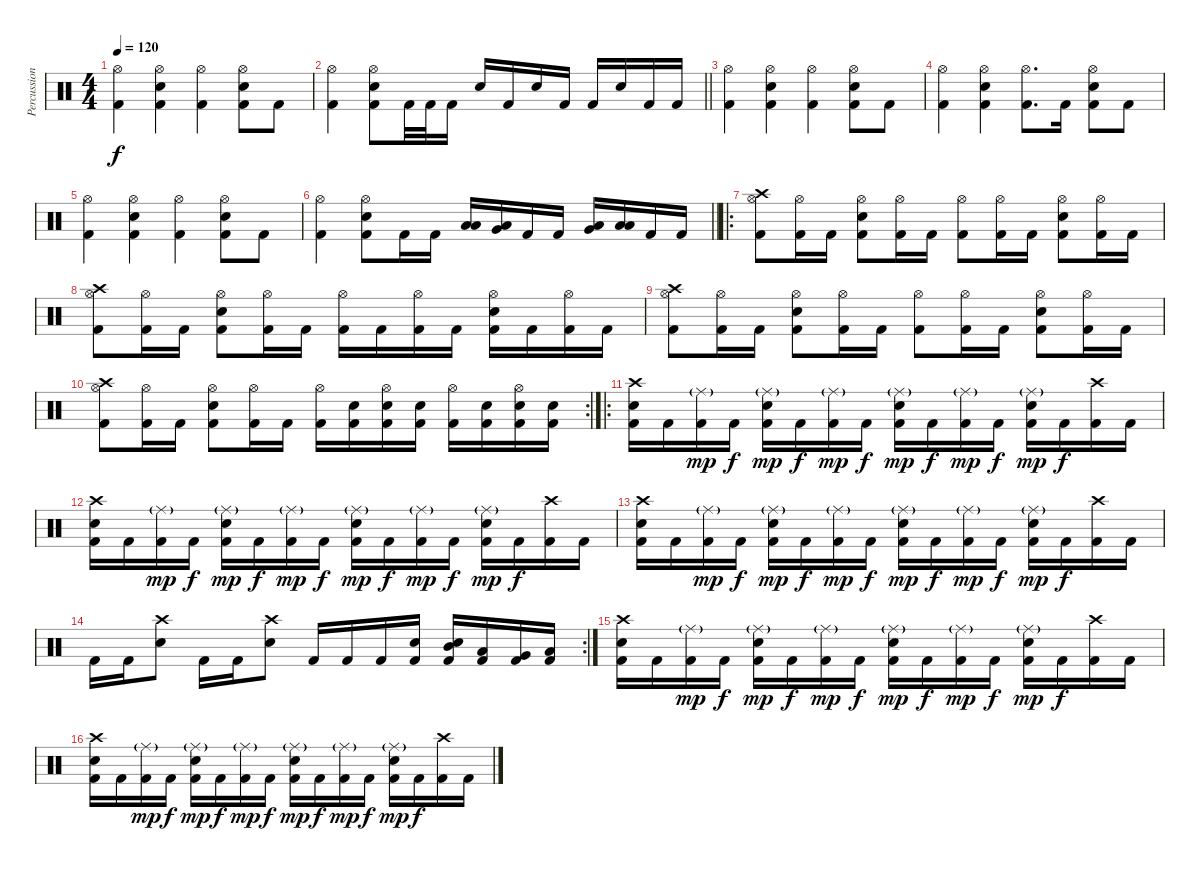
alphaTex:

\track ("Percussion" "Percussion") {instrument percussion}
\staff {score}
\articulation defaults
\ts (4 4)
\tempo 120
\clef neutral
\ks c
("Hi-Hat (open)" "Kick (hit) 2").4{dy f} ("Hi-Hat (open)" "Snare (hit) 2" "Kick (hit) 2").4 ("Hi-Hat (open)" "Kick (hit) 2").4 ("Hi-Hat (open)" "Snare (hit) 2" "Kick (hit) 2").8 "Kick (hit) 2".8 |
\barLineRight lightlight
("Hi-Hat (open)" "Kick (hit) 2").4 ("Hi-Hat (open)" "Snare (hit) 2" "Kick (hit) 2").8 "Kick (hit) 2".32 "Kick (hit) 2".32 "Kick (hit) 2".16 "Snare (hit) 2".16 "Kick (hit) 2".16 "Snare (hit) 2".16 "Kick (hit) 2".16 "Kick (hit) 2".16 "Snare (hit) 2".16 "Kick (hit) 2".16 "Kick (hit) 2".16 |
("Hi-Hat (open)" "Kick (hit) 2").4 ("Hi-Hat (open)" "Snare (hit) 2" "Kick (hit) 2").4 ("Hi-Hat (open)" "Kick (hit) 2").4 ("Hi-Hat (open)" "Snare (hit) 2" "Kick (hit) 2").8 "Kick (hit) 2".8 |
("Hi-Hat (open)" "Kick (hit) 2").4 ("Hi-Hat (open)" "Snare (hit) 2" "Kick (hit) 2").4 ("Hi-Hat (open)" "Kick (hit) 2").8{d} "Kick (hit) 2".16 ("Hi-Hat (open)" "Snare (hit) 2" "Kick (hit) 2").8 "Kick (hit) 2".8 |
("Hi-Hat (open)" "Kick (hit) 2").4 ("Hi-Hat (open)" "Snare (hit) 2" "Kick (hit) 2").4 ("Hi-Hat (open)" "Kick (hit) 2").4 ("Hi-Hat (open)" "Snare (hit) 2" "Kick (hit) 2").8 "Kick (hit) 2".8 |
\barLineRight lightlight
("Hi-Hat (open)" "Kick (hit) 2").4 ("Hi-Hat (open)" "Snare (hit) 2" "Kick (hit) 2").8 "Kick (hit) 2".16 "Kick (hit) 2".16 ("Low Floor Tom (hit)" "Low Tom (hit)").16 ("Low Floor Tom (hit)" "Very Low Tom (hit)").16 "Kick (hit) 2".16 "Kick (hit) 2".16 ("Low Floor Tom (hit)" "Very Low Tom (hit)").16 ("Low Floor Tom (hit)" "Low Floor Tom (hit)").16 "Kick (hit) 2".16 "Kick (hit) 2".16 |
\ro
("Hi-Hat (open)" "Kick (hit) 2" "Crash high (hit)").8 ("Hi-Hat (open)" "Kick (hit) 2").16 "Kick (hit) 2".16 ("Hi-Hat (open)" "Snare (hit) 2" "Kick (hit) 2").8 ("Hi-Hat (open)" "Kick (hit) 2").16 "Kick (hit) 2".16 ("Hi-Hat (open)" "Kick (hit) 2").8 ("Hi-Hat (open)" "Kick (hit) 2").16 "Kick (hit) 2".16 ("Hi-Hat (open)" "Snare (hit) 2" "Kick (hit) 2").8 ("Hi-Hat (open)" "Kick (hit) 2").16 "Kick (hit) 2".16 |
("Hi-Hat (open)" "Kick (hit) 2" "Crash high (hit)").8 ("Hi-Hat (open)" "Kick (hit) 2").16 "Kick (hit) 2".16 ("Hi-Hat (open)" "Snare (hit) 2" "Kick (hit) 2").8 ("Hi-Hat (open)" "Kick (hit) 2").16 "Kick (hit) 2".16 ("Hi-Hat (open)" "Kick (hit) 2").16 "Kick (hit) 2".16 ("Hi-Hat (open)" "Kick (hit) 2").16 "Kick (hit) 2".16 ("Hi-Hat (open)" "Snare (hit) 2" "Kick (hit) 2").16 "Kick (hit) 2".16 ("Hi-Hat (open)" "Kick (hit) 2").16 "Kick (hit) 2".16 |
("Hi-Hat (open)" "Kick (hit) 2" "Crash high (hit)").8 ("Hi-Hat (open)" "Kick (hit) 2").16 "Kick (hit) 2".16 ("Hi-Hat (open)" "Snare (hit) 2" "Kick (hit) 2").8 ("Hi-Hat (open)" "Kick (hit) 2").16 "Kick (hit) 2".16 ("Hi-Hat (open)" "Kick (hit) 2").8 ("Hi-Hat (open)" "Kick (hit) 2").16 "Kick (hit) 2".16 ("Hi-Hat (open)" "Snare (hit) 2" "Kick (hit) 2").8 ("Hi-Hat (open)" "Kick (hit) 2").16 "Kick (hit) 2".16 |
\rc 2
("Hi-Hat (open)" "Kick (hit) 2" "Crash high (hit)").8 ("Hi-Hat (open)" "Kick (hit) 2").16 "Kick (hit) 2".16 ("Hi-Hat (open)" "Snare (hit) 2" "Kick (hit) 2").8 ("Hi-Hat (open)" "Kick (hit) 2").16 "Kick (hit) 2".16 ("Hi-Hat (open)" "Kick (hit) 2").16 ("Snare (hit) 2" "Kick (hit) 2").16 ("Hi-Hat (open)" "Snare (hit) 2" "Kick (hit) 2").16 ("Snare (hit) 2" "Kick (hit) 2").16 ("Hi-Hat (open)" "Kick (hit) 2").16 ("Snare (hit) 2" "Kick (hit) 2").16 ("Hi-Hat (open)" "Snare (hit) 2" "Kick (hit) 2").16 ("Snare (hit) 2" "Kick (hit) 2").16 |
\ro
("Snare (hit) 2" "Kick (hit) 2" "Crash high (hit)").16 "Kick (hit) 2".16 ("Ride (middle)"{g} "Kick (hit) 2").16{dy mp} "Kick (hit) 2".16{dy f} ("Ride (middle)"{g} "Snare (hit) 2" "Kick (hit) 2").16{dy mp} "Kick (hit) 2".16{dy f} ("Ride (middle)"{g} "Kick (hit) 2").16{dy mp} "Kick (hit) 2".16{dy f} ("Ride (middle)"{g} "Snare (hit) 2" "Kick (hit) 2").16{dy mp} "Kick (hit) 2".16{dy f} ("Ride (middle)"{g} "Kick (hit) 2").16{dy mp} "Kick (hit) 2".16{dy f} ("Ride (middle)"{g} "Snare (hit) 2" "Kick (hit) 2").16{dy mp} "Kick (hit) 2".16{dy f} ("Kick (hit) 2" "Crash high (hit)").16 "Kick (hit) 2".16 |
("Snare (hit) 2" "Kick (hit) 2" "Crash high (hit)").16 "Kick (hit) 2".16 ("Ride (middle)"{g} "Kick (hit) 2").16{dy mp} "Kick (hit) 2".16{dy f} ("Ride (middle)"{g} "Snare (hit) 2" "Kick (hit) 2").16{dy mp} "Kick (hit) 2".16{dy f} ("Ride (middle)"{g} "Kick (hit) 2").16{dy mp} "Kick (hit) 2".16{dy f} ("Ride (middle)"{g} "Snare (hit) 2" "Kick (hit) 2").16{dy mp} "Kick (hit) 2".16{dy f} ("Ride (middle)"{g} "Kick (hit) 2").16{dy mp} "Kick (hit) 2".16{dy f} ("Ride (middle)"{g} "Snare (hit) 2" "Kick (hit) 2").16{dy mp} "Kick (hit) 2".16{dy f} ("Kick (hit) 2" "Crash high (hit)").16 "Kick (hit) 2".16 |
("Snare (hit) 2" "Kick (hit) 2" "Crash high (hit)").16 "Kick (hit) 2".16 ("Ride (middle)"{g} "Kick (hit) 2").16{dy mp} "Kick (hit) 2".16{dy f} ("Ride (middle)"{g} "Snare (hit) 2" "Kick (hit) 2").16{dy mp} "Kick (hit) 2".16{dy f} ("Ride (middle)"{g} "Kick (hit) 2").16{dy mp} "Kick (hit) 2".16{dy f} ("Ride (middle)"{g} "Snare (hit) 2" "Kick (hit) 2").16{dy mp} "Kick (hit) 2".16{dy f} ("Ride (middle)"{g} "Kick (hit) 2").16{dy mp} "Kick (hit) 2".16{dy f} ("Ride (middle)"{g} "Snare (hit) 2" "Kick (hit) 2").16{dy mp} "Kick (hit) 2".16{dy f} ("Kick (hit) 2" "Crash high (hit)").16 "Kick (hit) 2".16 |
\rc 2 "Kick (hit) 2".16 "Kick (hit) 2".16
("Snare (hit) 2" "Crash high (hit)").8 "Kick (hit) 2".16 "Kick (hit) 2".16 ("Snare (hit) 2" "Crash high (hit)").8 "Kick (hit) 2".16 "Kick (hit) 2".16 "Kick (hit) 2".16 ("Snare (hit) 2" "Kick (hit) 2").16 ("Mid Tom (hit)" "Snare (hit) 2" "Kick (hit) 2").16 ("Low Tom (hit)" "Kick (hit) 2").16 ("Very Low Tom (hit)" "Kick (hit) 2").16 ("Low Floor Tom (hit)" "Kick (hit) 2").16 |
("Snare (hit) 2" "Kick (hit) 2" "Crash high (hit)").16 "Kick (hit) 2".16 ("Ride (middle)"{g} "Kick (hit) 2").16{dy mp} "Kick (hit) 2".16{dy f} ("Ride (middle)"{g} "Snare (hit) 2" "Kick (hit) 2").16{dy mp} "Kick (hit) 2".16{dy f} ("Ride (middle)"{g} "Kick (hit) 2").16{dy mp} "Kick (hit) 2".16{dy f} ("Ride (middle)"{g} "Snare (hit) 2" "Kick (hit) 2").16{dy mp} "Kick (hit) 2".16{dy f} ("Ride (middle)"{g} "Kick (hit) 2").16{dy mp} "Kick (hit) 2".16{dy f} ("Ride (middle)"{g} "Snare (hit) 2" "Kick (hit) 2").16{dy mp} "Kick (hit) 2".16{dy f} ("Kick (hit) 2" "Crash high (hit)").16 "Kick (hit) 2".16 |
("Snare (hit) 2" "Kick (hit) 2" "Crash high (hit)").16 "Kick (hit) 2".16 ("Ride (middle)"{g} "Kick (hit) 2").16{dy mp} "Kick (hit) 2".16{dy f} ("Ride (middle)"{g} "Snare (hit) 2" "Kick (hit) 2").16{dy mp} "Kick (hit) 2".16{dy f} ("Ride (middle)"{g} "Kick (hit) 2").16{dy mp} "Kick (hit) 2".16{dy f} ("Ride (middle)"{g} "Snare (hit) 2" "Kick (hit) 2").16{dy mp} "Kick (hit) 2".16{dy f} ("Ride (middle)"{g} "Kick (hit) 2").16{dy mp} "Kick (hit) 2".16{dy f} ("Ride (middle)"{g} "Snare (hit) 2" "Kick (hit) 2").16{dy mp} "Kick (hit) 2".16{dy f} ("Kick (hit) 2" "Crash high (hit)").16 "Kick (hit) 2".16
